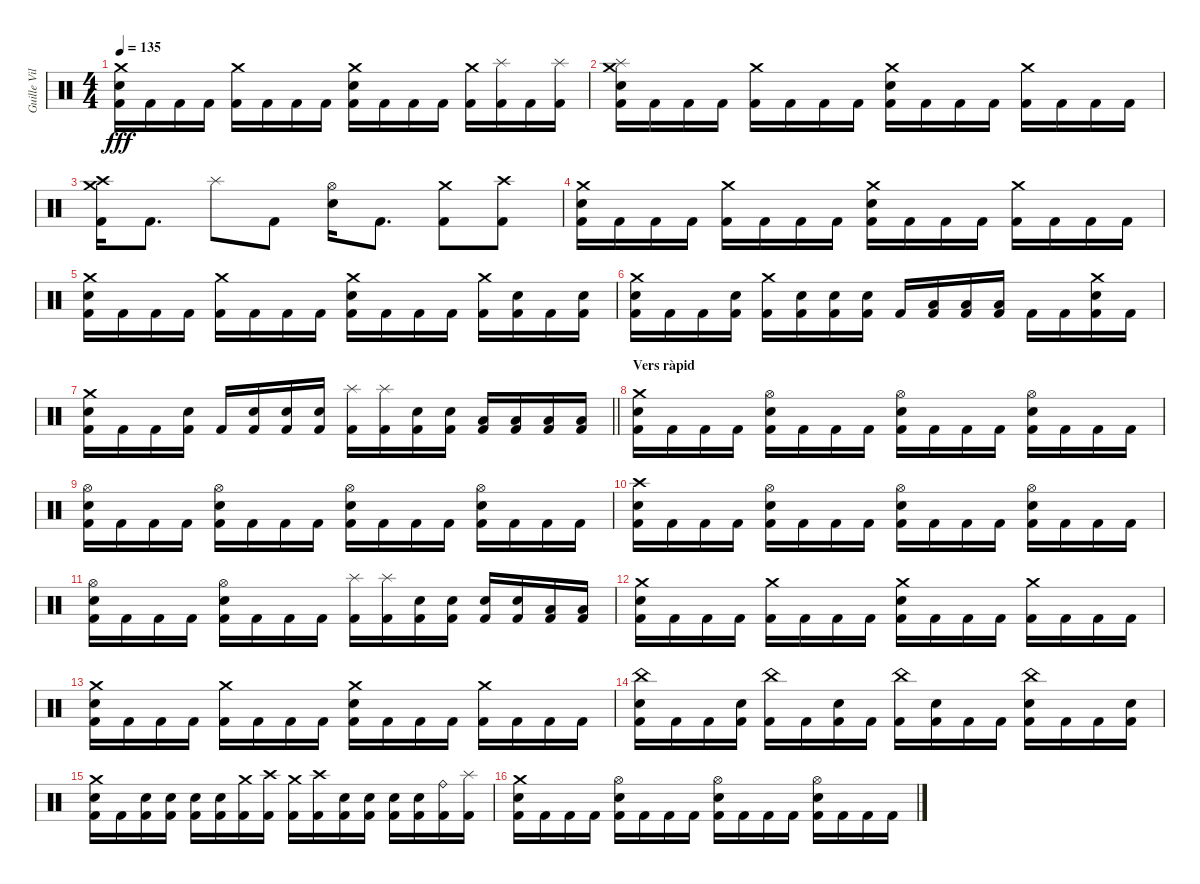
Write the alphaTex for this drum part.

\track ("Guille Vila" "Guille Vil") {instrument percussion}
\staff {score}
\articulation defaults
\ts (4 4)
\tempo 135
\clef neutral
\ks c
("Crash medium (hit)" "Snare (hit) 2" "Kick (hit) 2").16{dy fff} "Kick (hit) 2".16 "Kick (hit) 2".16 "Kick (hit) 2".16 ("Crash medium (hit)" "Kick (hit) 2").16 "Kick (hit) 2".16 "Kick (hit) 2".16 "Kick (hit) 2".16 ("Crash medium (hit)" "Snare (hit) 2" "Kick (hit) 2").16 "Kick (hit) 2".16 "Kick (hit) 2".16 "Kick (hit) 2".16 ("Crash medium (hit)" "Kick (hit) 2").16 ("Splash (hit)" "Kick (hit) 2").16 "Kick (hit) 2".16 ("Splash (hit)" "Kick (hit) 2").16 |
("Crash medium (hit)" "Splash (hit)" "Snare (hit) 2" "Kick (hit) 2").16 "Kick (hit) 2".16 "Kick (hit) 2".16 "Kick (hit) 2".16 ("Crash medium (hit)" "Kick (hit) 2").16 "Kick (hit) 2".16 "Kick (hit) 2".16 "Kick (hit) 2".16 ("Crash medium (hit)" "Snare (hit) 2" "Kick (hit) 2").16 "Kick (hit) 2".16 "Kick (hit) 2".16 "Kick (hit) 2".16 ("Crash medium (hit)" "Kick (hit) 2").16 "Kick (hit) 2".16 "Kick (hit) 2".16 "Kick (hit) 2".16 |
("Crash medium (hit)" "Crash high (hit)" "Kick (hit) 2").16 "Kick (hit) 2".8{d} "Splash (hit)".8 "Kick (hit) 2".8 ("Hi-Hat (open)" "Snare (hit) 2").16 "Kick (hit) 2".8{d} ("Crash medium (hit)" "Kick (hit) 2").8 ("Crash high (hit)" "Kick (hit) 2").8 |
("Crash medium (hit)" "Snare (hit) 2" "Kick (hit) 2").16 "Kick (hit) 2".16 "Kick (hit) 2".16 "Kick (hit) 2".16 ("Crash medium (hit)" "Kick (hit) 2").16 "Kick (hit) 2".16 "Kick (hit) 2".16 "Kick (hit) 2".16 ("Crash medium (hit)" "Snare (hit) 2" "Kick (hit) 2").16 "Kick (hit) 2".16 "Kick (hit) 2".16 "Kick (hit) 2".16 ("Crash medium (hit)" "Kick (hit) 2").16 "Kick (hit) 2".16 "Kick (hit) 2".16 "Kick (hit) 2".16 |
("Crash medium (hit)" "Snare (hit) 2" "Kick (hit) 2").16 "Kick (hit) 2".16 "Kick (hit) 2".16 "Kick (hit) 2".16 ("Crash medium (hit)" "Kick (hit) 2").16 "Kick (hit) 2".16 "Kick (hit) 2".16 "Kick (hit) 2".16 ("Crash medium (hit)" "Snare (hit) 2" "Kick (hit) 2").16 "Kick (hit) 2".16 "Kick (hit) 2".16 "Kick (hit) 2".16 ("Crash medium (hit)" "Kick (hit) 2").16 ("Snare (hit) 2" "Kick (hit) 2").16 "Kick (hit) 2".16 ("Snare (hit) 2" "Kick (hit) 2").16 |
("Crash medium (hit)" "Snare (hit) 2" "Kick (hit) 2").16 "Kick (hit) 2".16 "Kick (hit) 2".16 ("Snare (hit) 2" "Kick (hit) 2").16 ("Crash medium (hit)" "Kick (hit) 2").16 ("Snare (hit) 2" "Kick (hit) 2").16 ("Snare (hit) 2" "Kick (hit) 2").16 ("Snare (hit) 2" "Kick (hit) 2").16 "Kick (hit) 2".16 ("Low Tom (hit)" "Kick (hit) 2").16 ("Low Tom (hit)" "Kick (hit) 2").16 ("Low Tom (hit)" "Kick (hit) 2").16 "Kick (hit) 2".16 "Kick (hit) 2".16 ("Crash medium (hit)" "Snare (hit) 2" "Kick (hit) 2").16 "Kick (hit) 2".16 |
\barLineRight lightlight
("Crash medium (hit)" "Snare (hit) 2" "Kick (hit) 2").16 "Kick (hit) 2".16 "Kick (hit) 2".16 ("Snare (hit) 2" "Kick (hit) 2").16 "Kick (hit) 2".16 ("Snare (hit) 2" "Kick (hit) 2").16 ("Snare (hit) 2" "Kick (hit) 2").16 ("Snare (hit) 2" "Kick (hit) 2").16 ("Splash (hit)" "Kick (hit) 2").16 ("Splash (hit)" "Kick (hit) 2").16 ("Snare (hit) 2" "Kick (hit) 2").16 ("Snare (hit) 2" "Kick (hit) 2").16 ("Low Tom (hit)" "Kick (hit) 2").16 ("Low Tom (hit)" "Kick (hit) 2").16 ("Low Floor Tom (hit)" "Kick (hit) 2").16 ("Low Floor Tom (hit)" "Kick (hit) 2").16 |
\section ("" "Vers ràpid")
("Crash medium (hit)" "Snare (hit) 2" "Kick (hit) 2").16 "Kick (hit) 2".16 "Kick (hit) 2".16 "Kick (hit) 2".16 ("Hi-Hat (open)" "Snare (hit) 2" "Kick (hit) 2").16 "Kick (hit) 2".16 "Kick (hit) 2".16 "Kick (hit) 2".16 ("Hi-Hat (open)" "Snare (hit) 2" "Kick (hit) 2").16 "Kick (hit) 2".16 "Kick (hit) 2".16 "Kick (hit) 2".16 ("Hi-Hat (open)" "Snare (hit) 2" "Kick (hit) 2").16 "Kick (hit) 2".16 "Kick (hit) 2".16 "Kick (hit) 2".16 |
("Hi-Hat (open)" "Snare (hit) 2" "Kick (hit) 2").16 "Kick (hit) 2".16 "Kick (hit) 2".16 "Kick (hit) 2".16 ("Hi-Hat (open)" "Snare (hit) 2" "Kick (hit) 2").16 "Kick (hit) 2".16 "Kick (hit) 2".16 "Kick (hit) 2".16 ("Hi-Hat (open)" "Snare (hit) 2" "Kick (hit) 2").16 "Kick (hit) 2".16 "Kick (hit) 2".16 "Kick (hit) 2".16 ("Hi-Hat (open)" "Snare (hit) 2" "Kick (hit) 2").16 "Kick (hit) 2".16 "Kick (hit) 2".16 "Kick (hit) 2".16 |
("Crash high (hit)" "Snare (hit) 2" "Kick (hit) 2").16 "Kick (hit) 2".16 "Kick (hit) 2".16 "Kick (hit) 2".16 ("Hi-Hat (open)" "Snare (hit) 2" "Kick (hit) 2").16 "Kick (hit) 2".16 "Kick (hit) 2".16 "Kick (hit) 2".16 ("Hi-Hat (open)" "Snare (hit) 2" "Kick (hit) 2").16 "Kick (hit) 2".16 "Kick (hit) 2".16 "Kick (hit) 2".16 ("Hi-Hat (open)" "Snare (hit) 2" "Kick (hit) 2").16 "Kick (hit) 2".16 "Kick (hit) 2".16 "Kick (hit) 2".16 |
("Hi-Hat (open)" "Snare (hit) 2" "Kick (hit) 2").16 "Kick (hit) 2".16 "Kick (hit) 2".16 "Kick (hit) 2".16 ("Hi-Hat (open)" "Snare (hit) 2" "Kick (hit) 2").16 "Kick (hit) 2".16 "Kick (hit) 2".16 "Kick (hit) 2".16 ("Splash (hit)" "Kick (hit) 2").16 ("Splash (hit)" "Kick (hit) 2").16 ("Snare (hit) 2" "Kick (hit) 2").16 ("Snare (hit) 2" "Kick (hit) 2").16 ("Snare (hit) 2" "Kick (hit) 2").16 ("Snare (hit) 2" "Kick (hit) 2").16 ("Low Tom (hit)" "Kick (hit) 2").16 ("Low Tom (hit)" "Kick (hit) 2").16 |
("Crash medium (hit)" "Snare (hit) 2" "Kick (hit) 2").16 "Kick (hit) 2".16 "Kick (hit) 2".16 "Kick (hit) 2".16 ("Crash medium (hit)" "Kick (hit) 2").16 "Kick (hit) 2".16 "Kick (hit) 2".16 "Kick (hit) 2".16 ("Crash medium (hit)" "Snare (hit) 2" "Kick (hit) 2").16 "Kick (hit) 2".16 "Kick (hit) 2".16 "Kick (hit) 2".16 ("Crash medium (hit)" "Kick (hit) 2").16 "Kick (hit) 2".16 "Kick (hit) 2".16 "Kick (hit) 2".16 |
("Crash medium (hit)" "Snare (hit) 2" "Kick (hit) 2").16 "Kick (hit) 2".16 "Kick (hit) 2".16 "Kick (hit) 2".16 ("Crash medium (hit)" "Kick (hit) 2").16 "Kick (hit) 2".16 "Kick (hit) 2".16 "Kick (hit) 2".16 ("Crash medium (hit)" "Snare (hit) 2" "Kick (hit) 2").16 "Kick (hit) 2".16 "Kick (hit) 2".16 "Kick (hit) 2".16 ("Crash medium (hit)" "Kick (hit) 2").16 "Kick (hit) 2".16 "Kick (hit) 2".16 "Kick (hit) 2".16 |
("China (hit)" "Snare (hit) 2" "Kick (hit) 2").16 "Kick (hit) 2".16 "Kick (hit) 2".16 ("Snare (hit) 2" "Kick (hit) 2").16 ("China (hit)" "Kick (hit) 2").16 "Kick (hit) 2".16 ("Snare (hit) 2" "Kick (hit) 2").16 "Kick (hit) 2".16 ("China (hit)" "Kick (hit) 2").16 ("Snare (hit) 2" "Kick (hit) 2").16 "Kick (hit) 2".16 "Kick (hit) 2".16 ("China (hit)" "Snare (hit) 2" "Kick (hit) 2").16 "Kick (hit) 2".16 "Kick (hit) 2".16 ("Snare (hit) 2" "Kick (hit) 2").16 |
("Crash medium (hit)" "Snare (hit) 2" "Kick (hit) 2").16 "Kick (hit) 2".16 ("Snare (hit) 2" "Kick (hit) 2").16 ("Snare (hit) 2" "Kick (hit) 2").16 ("Snare (hit) 2" "Kick (hit) 2").16 ("Snare (hit) 2" "Kick (hit) 2").16 ("Crash medium (hit)" "Kick (hit) 2").16 ("Crash high (hit)" "Kick (hit) 2").16 ("Crash medium (hit)" "Kick (hit) 2").16 ("Crash high (hit)" "Kick (hit) 2").16 ("Snare (hit) 2" "Kick (hit) 2").16 ("Snare (hit) 2" "Kick (hit) 2").16 ("Snare (hit) 2" "Kick (hit) 2").16 ("Snare (hit) 2" "Kick (hit) 2").16 ("Ride (bell)" "Kick (hit) 2").16 ("Splash (hit)" "Kick (hit) 2").16 |
("Crash medium (hit)" "Snare (hit) 2" "Kick (hit) 2").16 "Kick (hit) 2".16 "Kick (hit) 2".16 "Kick (hit) 2".16 ("Hi-Hat (open)" "Snare (hit) 2" "Kick (hit) 2").16 "Kick (hit) 2".16 "Kick (hit) 2".16 "Kick (hit) 2".16 ("Hi-Hat (open)" "Snare (hit) 2" "Kick (hit) 2").16 "Kick (hit) 2".16 "Kick (hit) 2".16 "Kick (hit) 2".16 ("Hi-Hat (open)" "Snare (hit) 2" "Kick (hit) 2").16 "Kick (hit) 2".16 "Kick (hit) 2".16 "Kick (hit) 2".16
